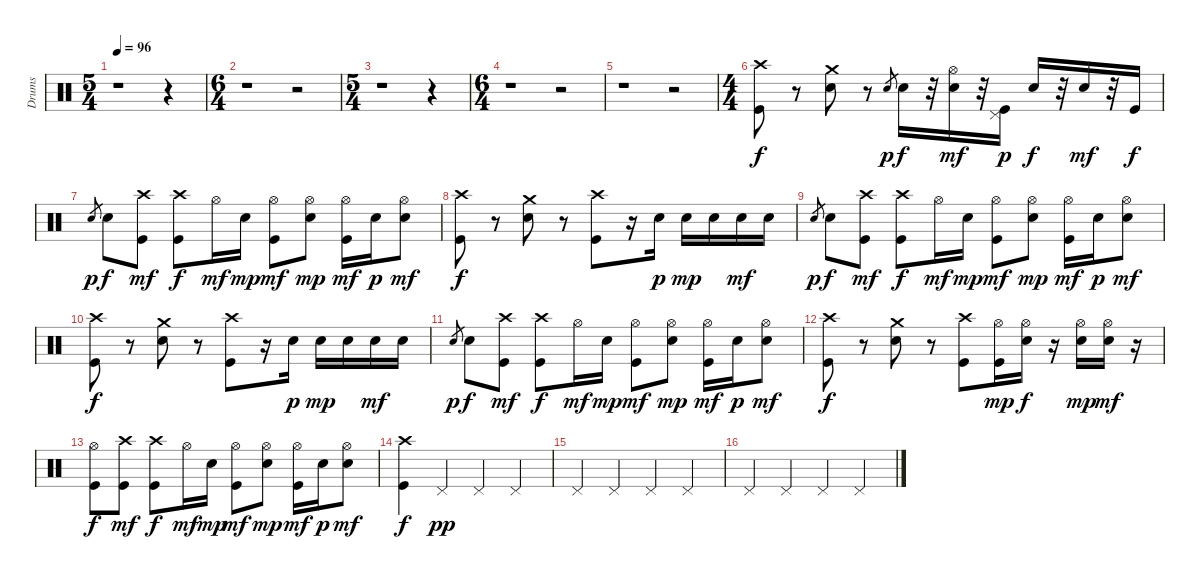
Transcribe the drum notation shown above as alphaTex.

\track ("Drums" "Drums") {instrument percussion}
\staff {score}
\articulation defaults
\ts (5 4)
\tempo 96
\clef neutral
\ks c
r.1{dy f} r.4 |
\ts (6 4)
r.1 r.2 |
\ts (5 4)
r.1 r.4 |
\ts (6 4)
r.1 r.2 |
r.1 r.2 |
\ts (4 4)
("Crash high (hit)" "Kick (hit)").8 r.8 ("Crash medium (hit)" "Snare (hit) 2").8 r.8 "Snare (hit) 2".8{gr dy p} "Snare (hit) 2".16{dy f} r.32 ("Hi-Hat (open)" "Snare (hit) 2").16{dy mf} r.32 ("Pedal Hi-Hat (hit)" "Kick (hit)").16{dy p} "Snare (hit) 2".16{dy f} r.32 "Snare (hit) 2".16{dy mf} r.32 "Kick (hit)".16{dy f} |
"Snare (hit) 2".8{gr dy p} "Snare (hit) 2".8{dy f} ("Crash high (hit)" "Kick (hit)").8{dy mf} ("Crash high (hit)" "Kick (hit)").8{dy f} "Hi-Hat (open)".16{dy mf} "Snare (hit) 2".16{dy mp} ("Hi-Hat (open)" "Kick (hit)").8{dy mf} ("Hi-Hat (open)" "Snare (hit) 2").8{dy mp} ("Hi-Hat (open)" "Kick (hit)").16{dy mf} "Snare (hit) 2".16{dy p} ("Hi-Hat (open)" "Snare (hit) 2").8{dy mf} |
("Crash high (hit)" "Kick (hit)").8{dy f} r.8 ("Crash medium (hit)" "Snare (hit) 2").8 r.8 ("Crash high (hit)" "Kick (hit)").8 r.16 "Snare (hit) 2".16{dy p} "Snare (hit) 2".16{dy mp} "Snare (hit) 2".16 "Snare (hit) 2".16{dy mf} "Snare (hit) 2".16 |
"Snare (hit) 2".8{gr dy p} "Snare (hit) 2".8{dy f} ("Crash high (hit)" "Kick (hit)").8{dy mf} ("Crash high (hit)" "Kick (hit)").8{dy f} "Hi-Hat (open)".16{dy mf} "Snare (hit) 2".16{dy mp} ("Hi-Hat (open)" "Kick (hit)").8{dy mf} ("Hi-Hat (open)" "Snare (hit) 2").8{dy mp} ("Hi-Hat (open)" "Kick (hit)").16{dy mf} "Snare (hit) 2".16{dy p} ("Hi-Hat (open)" "Snare (hit) 2").8{dy mf} |
("Crash high (hit)" "Kick (hit)").8{dy f} r.8 ("Crash medium (hit)" "Snare (hit) 2").8 r.8 ("Crash high (hit)" "Kick (hit)").8 r.16 "Snare (hit) 2".16{dy p} "Snare (hit) 2".16{dy mp} "Snare (hit) 2".16 "Snare (hit) 2".16{dy mf} "Snare (hit) 2".16 |
"Snare (hit) 2".8{gr dy p} "Snare (hit) 2".8{dy f} ("Crash high (hit)" "Kick (hit)").8{dy mf} ("Crash high (hit)" "Kick (hit)").8{dy f} "Hi-Hat (open)".16{dy mf} "Snare (hit) 2".16{dy mp} ("Hi-Hat (open)" "Kick (hit)").8{dy mf} ("Hi-Hat (open)" "Snare (hit) 2").8{dy mp} ("Hi-Hat (open)" "Kick (hit)").16{dy mf} "Snare (hit) 2".16{dy p} ("Hi-Hat (open)" "Snare (hit) 2").8{dy mf} |
("Crash high (hit)" "Kick (hit)").8{dy f} r.8 ("Crash medium (hit)" "Snare (hit) 2").8 r.8 ("Crash high (hit)" "Kick (hit)").8 ("Hi-Hat (open)" "Kick (hit)").16{dy mp} ("Hi-Hat (open)" "Snare (hit) 2").16{dy f} r.16 ("Hi-Hat (open)" "Snare (hit) 2").16{dy mp} ("Hi-Hat (open)" "Snare (hit) 2").16{dy mf} r.16 |
("Hi-Hat (open)" "Kick (hit)").8{dy f} ("Crash high (hit)" "Kick (hit)").8{dy mf} ("Crash high (hit)" "Kick (hit)").8{dy f} "Hi-Hat (open)".16{dy mf} "Snare (hit) 2".16{dy mp} ("Hi-Hat (open)" "Kick (hit)").8{dy mf} ("Hi-Hat (open)" "Snare (hit) 2").8{dy mp} ("Hi-Hat (open)" "Kick (hit)").16{dy mf} "Snare (hit) 2".16{dy p} ("Hi-Hat (open)" "Snare (hit) 2").8{dy mf} |
("Crash high (hit)" "Kick (hit)").4{dy f} "Pedal Hi-Hat (hit)".4{dy pp} "Pedal Hi-Hat (hit)".4 "Pedal Hi-Hat (hit)".4 |
"Pedal Hi-Hat (hit)".4 "Pedal Hi-Hat (hit)".4 "Pedal Hi-Hat (hit)".4 "Pedal Hi-Hat (hit)".4 |
"Pedal Hi-Hat (hit)".4 "Pedal Hi-Hat (hit)".4 "Pedal Hi-Hat (hit)".4 "Pedal Hi-Hat (hit)".4
